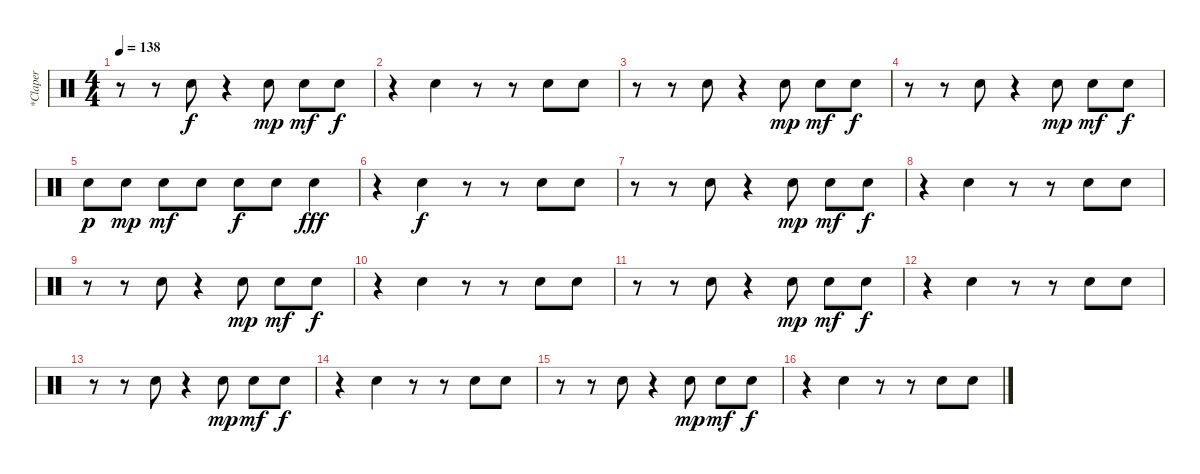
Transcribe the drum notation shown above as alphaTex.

\track ("*Claper" "*Claper") {instrument percussion}
\staff {score}
\articulation defaults
\ts (4 4)
\tempo 138
\clef neutral
\ks c
r.8{dy f} r.8 "Hand Clap (hit)".8 r.4 "Hand Clap (hit)".8{dy mp} "Hand Clap (hit)".8{dy mf} "Hand Clap (hit)".8{dy f} |
r.4 "Hand Clap (hit)".4 r.8 r.8 "Hand Clap (hit)".8 "Hand Clap (hit)".8 |
r.8 r.8 "Hand Clap (hit)".8 r.4 "Hand Clap (hit)".8{dy mp} "Hand Clap (hit)".8{dy mf} "Hand Clap (hit)".8{dy f} |
r.8 r.8 "Hand Clap (hit)".8 r.4 "Hand Clap (hit)".8{dy mp} "Hand Clap (hit)".8{dy mf} "Hand Clap (hit)".8{dy f} |
"Hand Clap (hit)".8{dy p} "Hand Clap (hit)".8{dy mp} "Hand Clap (hit)".8{dy mf} "Hand Clap (hit)".8 "Hand Clap (hit)".8{dy f} "Hand Clap (hit)".8 "Hand Clap (hit)".4{dy fff} |
r.4 "Hand Clap (hit)".4{dy f} r.8 r.8 "Hand Clap (hit)".8 "Hand Clap (hit)".8 |
r.8 r.8 "Hand Clap (hit)".8 r.4 "Hand Clap (hit)".8{dy mp} "Hand Clap (hit)".8{dy mf} "Hand Clap (hit)".8{dy f} |
r.4 "Hand Clap (hit)".4 r.8 r.8 "Hand Clap (hit)".8 "Hand Clap (hit)".8 |
r.8 r.8 "Hand Clap (hit)".8 r.4 "Hand Clap (hit)".8{dy mp} "Hand Clap (hit)".8{dy mf} "Hand Clap (hit)".8{dy f} |
r.4 "Hand Clap (hit)".4 r.8 r.8 "Hand Clap (hit)".8 "Hand Clap (hit)".8 |
r.8 r.8 "Hand Clap (hit)".8 r.4 "Hand Clap (hit)".8{dy mp} "Hand Clap (hit)".8{dy mf} "Hand Clap (hit)".8{dy f} |
r.4 "Hand Clap (hit)".4 r.8 r.8 "Hand Clap (hit)".8 "Hand Clap (hit)".8 |
r.8 r.8 "Hand Clap (hit)".8 r.4 "Hand Clap (hit)".8{dy mp} "Hand Clap (hit)".8{dy mf} "Hand Clap (hit)".8{dy f} |
r.4 "Hand Clap (hit)".4 r.8 r.8 "Hand Clap (hit)".8 "Hand Clap (hit)".8 |
r.8 r.8 "Hand Clap (hit)".8 r.4 "Hand Clap (hit)".8{dy mp} "Hand Clap (hit)".8{dy mf} "Hand Clap (hit)".8{dy f} |
r.4 "Hand Clap (hit)".4 r.8 r.8 "Hand Clap (hit)".8 "Hand Clap (hit)".8
